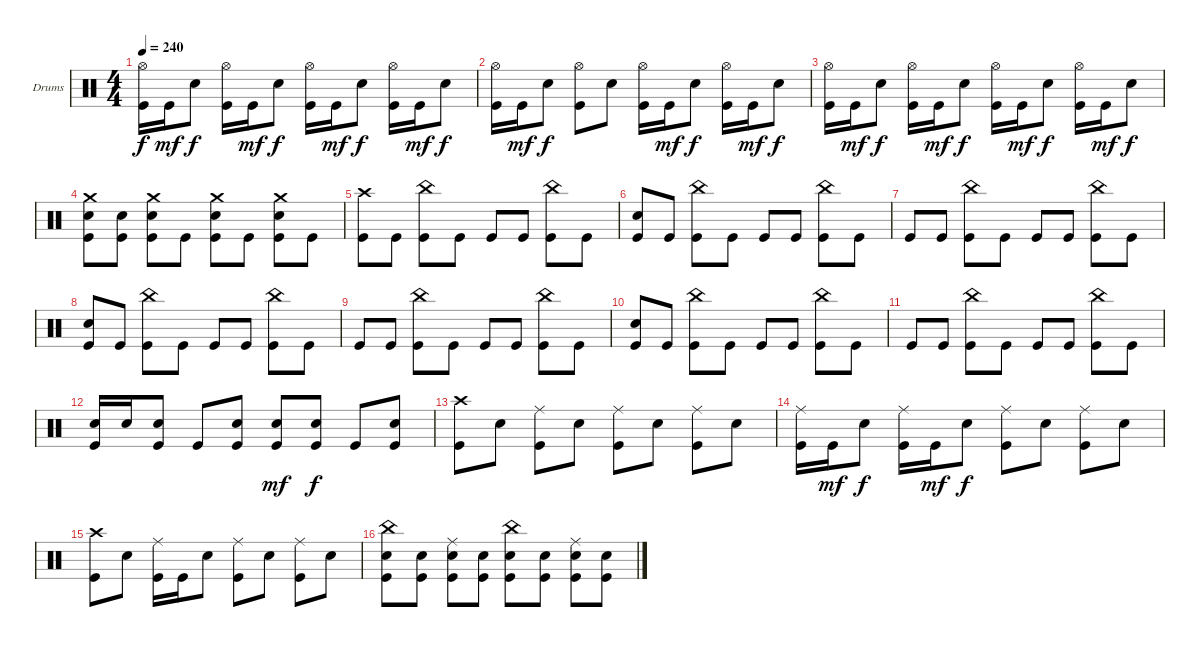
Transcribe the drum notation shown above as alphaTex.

\bracketExtendMode groupsimilarinstruments
\firstSystemTrackNameOrientation horizontal
\otherSystemsTrackNameOrientation horizontal
\track ("Drumkit" "Drums") {instrument percussion}
\staff {score}
\articulation defaults
\ts (4 4)
\tempo 240
\clef neutral
\ks c
("Hi-Hat (open)" "Kick (hit)").16{dy f} "Kick (hit)".16{dy mf} "Snare (hit) 2".8{dy f} ("Hi-Hat (open)" "Kick (hit)").16 "Kick (hit)".16{dy mf} "Snare (hit) 2".8{dy f} ("Hi-Hat (open)" "Kick (hit)").16 "Kick (hit)".16{dy mf} "Snare (hit) 2".8{dy f} ("Hi-Hat (open)" "Kick (hit)").16 "Kick (hit)".16{dy mf} "Snare (hit) 2".8{dy f} |
("Hi-Hat (open)" "Kick (hit)").16 "Kick (hit)".16{dy mf} "Snare (hit) 2".8{dy f} ("Hi-Hat (open)" "Kick (hit)").8 "Snare (hit) 2".8 ("Hi-Hat (open)" "Kick (hit)").16 "Kick (hit)".16{dy mf} "Snare (hit) 2".8{dy f} ("Hi-Hat (open)" "Kick (hit)").16 "Kick (hit)".16{dy mf} "Snare (hit) 2".8{dy f} |
("Hi-Hat (open)" "Kick (hit)").16 "Kick (hit)".16{dy mf} "Snare (hit) 2".8{dy f} ("Hi-Hat (open)" "Kick (hit)").16 "Kick (hit)".16{dy mf} "Snare (hit) 2".8{dy f} ("Hi-Hat (open)" "Kick (hit)").16 "Kick (hit)".16{dy mf} "Snare (hit) 2".8{dy f} ("Hi-Hat (open)" "Kick (hit)").16 "Kick (hit)".16{dy mf} "Snare (hit) 2".8{dy f} |
("Crash medium (hit)" "Snare (hit) 2" "Kick (hit)").8 ("Snare (hit) 2" "Kick (hit)").8 ("Crash medium (hit)" "Snare (hit) 2" "Kick (hit)").8 "Kick (hit)".8 ("Crash medium (hit)" "Snare (hit) 2" "Kick (hit)").8 "Kick (hit)".8 ("Crash medium (hit)" "Snare (hit) 2" "Kick (hit)").8 "Kick (hit)".8 |
("Crash high (hit)" "Kick (hit)").8 "Kick (hit)".8 ("China (hit)" "Kick (hit)").8 "Kick (hit)".8 "Kick (hit)".8 "Kick (hit)".8 ("China (hit)" "Kick (hit)").8 "Kick (hit)".8 |
("Snare (hit) 2" "Kick (hit)").8 "Kick (hit)".8 ("China (hit)" "Kick (hit)").8 "Kick (hit)".8 "Kick (hit)".8 "Kick (hit)".8 ("China (hit)" "Kick (hit)").8 "Kick (hit)".8 |
"Kick (hit)".8 "Kick (hit)".8 ("China (hit)" "Kick (hit)").8 "Kick (hit)".8 "Kick (hit)".8 "Kick (hit)".8 ("China (hit)" "Kick (hit)").8 "Kick (hit)".8 |
("Snare (hit) 2" "Kick (hit)").8 "Kick (hit)".8 ("China (hit)" "Kick (hit)").8 "Kick (hit)".8 "Kick (hit)".8 "Kick (hit)".8 ("China (hit)" "Kick (hit)").8 "Kick (hit)".8 |
"Kick (hit)".8 "Kick (hit)".8 ("China (hit)" "Kick (hit)").8 "Kick (hit)".8 "Kick (hit)".8 "Kick (hit)".8 ("China (hit)" "Kick (hit)").8 "Kick (hit)".8 |
("Snare (hit) 2" "Kick (hit)").8 "Kick (hit)".8 ("China (hit)" "Kick (hit)").8 "Kick (hit)".8 "Kick (hit)".8 "Kick (hit)".8 ("China (hit)" "Kick (hit)").8 "Kick (hit)".8 |
"Kick (hit)".8 "Kick (hit)".8 ("China (hit)" "Kick (hit)").8 "Kick (hit)".8 "Kick (hit)".8 "Kick (hit)".8 ("China (hit)" "Kick (hit)").8 "Kick (hit)".8 |
("Snare (hit) 2" "Kick (hit)").16 "Snare (hit) 2".16 ("Snare (hit) 2" "Kick (hit)").8 "Kick (hit)".8 ("Snare (hit) 2" "Kick (hit)").8 ("Snare (hit) 2" "Kick (hit)").8{dy mf} ("Snare (hit) 2" "Kick (hit)").8{dy f} "Kick (hit)".8 ("Snare (hit) 2" "Kick (hit)").8 |
("Crash high (hit)" "Kick (hit)").8 "Snare (hit) 2".8 ("Ride (middle)" "Kick (hit)").8 "Snare (hit) 2".8 ("Ride (middle)" "Kick (hit)").8 "Snare (hit) 2".8 ("Ride (middle)" "Kick (hit)").8 "Snare (hit) 2".8 |
("Ride (middle)" "Kick (hit)").16 "Kick (hit)".16{dy mf} "Snare (hit) 2".8{dy f} ("Ride (middle)" "Kick (hit)").16 "Kick (hit)".16{dy mf} "Snare (hit) 2".8{dy f} ("Ride (middle)" "Kick (hit)").8 "Snare (hit) 2".8 ("Ride (middle)" "Kick (hit)").8 "Snare (hit) 2".8 |
("Crash high (hit)" "Kick (hit)").8 "Snare (hit) 2".8 ("Ride (middle)" "Kick (hit)").16 "Kick (hit)".16 "Snare (hit) 2".8 ("Ride (middle)" "Kick (hit)").8 "Snare (hit) 2".8 ("Ride (middle)" "Kick (hit)").8 "Snare (hit) 2".8 |
("China (hit)" "Snare (hit) 2" "Kick (hit)").8 ("Snare (hit) 2" "Kick (hit)").8 ("Ride (middle)" "Snare (hit) 2" "Kick (hit)").8 ("Snare (hit) 2" "Kick (hit)").8 ("China (hit)" "Snare (hit) 2" "Kick (hit)").8 ("Snare (hit) 2" "Kick (hit)").8 ("Ride (middle)" "Snare (hit) 2" "Kick (hit)").8 ("Snare (hit) 2" "Kick (hit)").8
